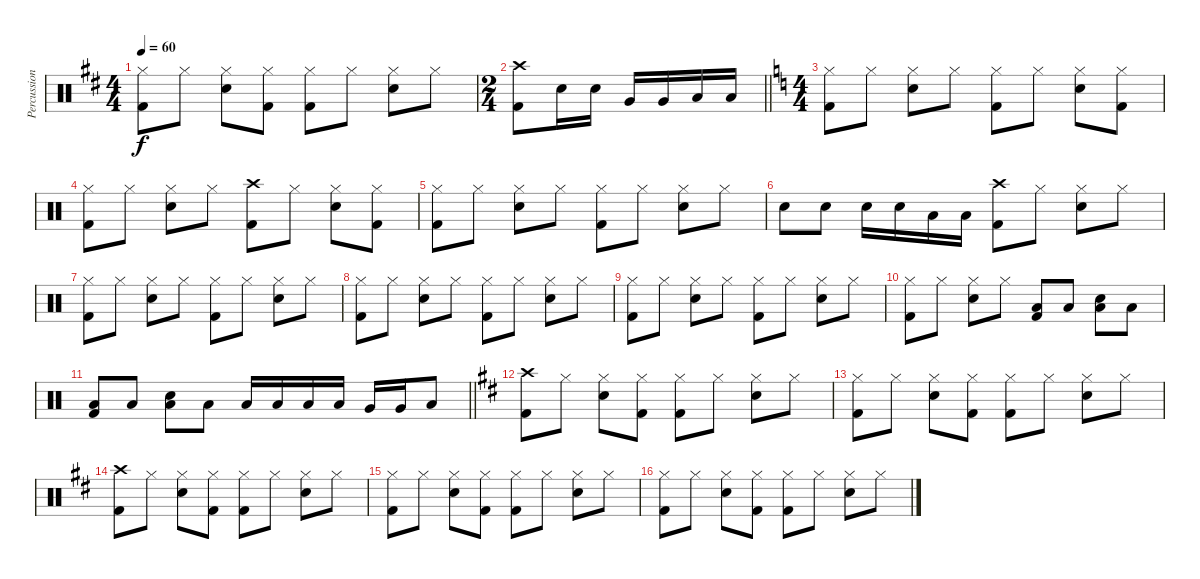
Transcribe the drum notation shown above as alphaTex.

\track ("Percussioni" "Percussion") {instrument percussion}
\staff {score}
\articulation defaults
\ts (4 4)
\tempo 60
\clef neutral
\ks d
("Hi-Hat (closed)" "Kick (hit) 2").8{dy f} "Hi-Hat (closed)".8 ("Hi-Hat (closed)" "Electric Snare (hit)").8 ("Hi-Hat (closed)" "Kick (hit) 2").8 ("Hi-Hat (closed)" "Kick (hit) 2").8 "Hi-Hat (closed)".8 ("Hi-Hat (closed)" "Electric Snare (hit)").8 "Hi-Hat (closed)".8 |
\ts (2 4)
\barLineRight lightlight
("Crash high (hit)" "Kick (hit) 2").8 "Electric Snare (hit)".16 "Electric Snare (hit)".16 "Very Low Tom (hit)".16 "Very Low Tom (hit)".16 "Low Floor Tom (hit)".16 "Low Floor Tom (hit)".16 |
\ts (4 4)
\ks c
("Hi-Hat (closed)" "Kick (hit) 2").8 "Hi-Hat (closed)".8 ("Hi-Hat (closed)" "Electric Snare (hit)").8 "Hi-Hat (closed)".8 ("Hi-Hat (closed)" "Kick (hit) 2").8 "Hi-Hat (closed)".8 ("Hi-Hat (closed)" "Electric Snare (hit)").8 ("Hi-Hat (closed)" "Kick (hit) 2").8 |
("Hi-Hat (closed)" "Kick (hit) 2").8 "Hi-Hat (closed)".8 ("Hi-Hat (closed)" "Electric Snare (hit)").8 "Hi-Hat (closed)".8 ("Crash high (hit)" "Kick (hit) 2").8 "Hi-Hat (closed)".8 ("Hi-Hat (closed)" "Electric Snare (hit)").8 ("Hi-Hat (closed)" "Kick (hit) 2").8 |
("Hi-Hat (closed)" "Kick (hit) 2").8 "Hi-Hat (closed)".8 ("Hi-Hat (closed)" "Electric Snare (hit)").8 "Hi-Hat (closed)".8 ("Hi-Hat (closed)" "Kick (hit) 2").8 "Hi-Hat (closed)".8 ("Hi-Hat (closed)" "Electric Snare (hit)").8 "Hi-Hat (closed)".8 |
"Electric Snare (hit)".8 "Electric Snare (hit)".8 "Electric Snare (hit)".16 "Electric Snare (hit)".16 "Low Floor Tom (hit)".16 "Low Floor Tom (hit)".16 ("Crash high (hit)" "Kick (hit) 2").8 "Hi-Hat (closed)".8 ("Hi-Hat (closed)" "Electric Snare (hit)").8 "Hi-Hat (closed)".8 |
("Hi-Hat (closed)" "Kick (hit) 2").8 "Hi-Hat (closed)".8 ("Hi-Hat (closed)" "Electric Snare (hit)").8 "Hi-Hat (closed)".8 ("Hi-Hat (closed)" "Kick (hit) 2").8 "Hi-Hat (closed)".8 ("Hi-Hat (closed)" "Electric Snare (hit)").8 "Hi-Hat (closed)".8 |
("Hi-Hat (closed)" "Kick (hit) 2").8 "Hi-Hat (closed)".8 ("Hi-Hat (closed)" "Electric Snare (hit)").8 "Hi-Hat (closed)".8 ("Hi-Hat (closed)" "Kick (hit) 2").8 "Hi-Hat (closed)".8 ("Hi-Hat (closed)" "Electric Snare (hit)").8 "Hi-Hat (closed)".8 |
("Hi-Hat (closed)" "Kick (hit) 2").8 "Hi-Hat (closed)".8 ("Hi-Hat (closed)" "Electric Snare (hit)").8 "Hi-Hat (closed)".8 ("Hi-Hat (closed)" "Kick (hit) 2").8 "Hi-Hat (closed)".8 ("Hi-Hat (closed)" "Electric Snare (hit)").8 "Hi-Hat (closed)".8 |
("Hi-Hat (closed)" "Kick (hit) 2").8 "Hi-Hat (closed)".8 ("Hi-Hat (closed)" "Electric Snare (hit)").8 "Hi-Hat (closed)".8 ("Low Floor Tom (hit)" "Kick (hit) 2").8 "Low Floor Tom (hit)".8 ("Electric Snare (hit)" "Low Floor Tom (hit)").8 "Low Floor Tom (hit)".8 |
\barLineRight lightlight
("Low Floor Tom (hit)" "Kick (hit) 2").8 "Low Floor Tom (hit)".8 ("Electric Snare (hit)" "Low Floor Tom (hit)").8 "Low Floor Tom (hit)".8 "Low Floor Tom (hit)".16 "Low Floor Tom (hit)".16 "Low Floor Tom (hit)".16 "Low Floor Tom (hit)".16 "Very Low Tom (hit)".16 "Very Low Tom (hit)".16 "Low Floor Tom (hit)".8 |
\ks d
("Crash high (hit)" "Kick (hit) 2").8 "Hi-Hat (closed)".8 ("Hi-Hat (closed)" "Electric Snare (hit)").8 ("Hi-Hat (closed)" "Kick (hit) 2").8 ("Hi-Hat (closed)" "Kick (hit) 2").8 "Hi-Hat (closed)".8 ("Hi-Hat (closed)" "Electric Snare (hit)").8 "Hi-Hat (closed)".8 |
("Hi-Hat (closed)" "Kick (hit) 2").8 "Hi-Hat (closed)".8 ("Hi-Hat (closed)" "Electric Snare (hit)").8 ("Hi-Hat (closed)" "Kick (hit) 2").8 ("Hi-Hat (closed)" "Kick (hit) 2").8 "Hi-Hat (closed)".8 ("Hi-Hat (closed)" "Electric Snare (hit)").8 "Hi-Hat (closed)".8 |
("Crash high (hit)" "Kick (hit) 2").8 "Hi-Hat (closed)".8 ("Hi-Hat (closed)" "Electric Snare (hit)").8 ("Hi-Hat (closed)" "Kick (hit) 2").8 ("Hi-Hat (closed)" "Kick (hit) 2").8 "Hi-Hat (closed)".8 ("Hi-Hat (closed)" "Electric Snare (hit)").8 "Hi-Hat (closed)".8 |
("Hi-Hat (closed)" "Kick (hit) 2").8 "Hi-Hat (closed)".8 ("Hi-Hat (closed)" "Electric Snare (hit)").8 ("Hi-Hat (closed)" "Kick (hit) 2").8 ("Hi-Hat (closed)" "Kick (hit) 2").8 "Hi-Hat (closed)".8 ("Hi-Hat (closed)" "Electric Snare (hit)").8 "Hi-Hat (closed)".8 |
("Hi-Hat (closed)" "Kick (hit) 2").8 "Hi-Hat (closed)".8 ("Hi-Hat (closed)" "Electric Snare (hit)").8 ("Hi-Hat (closed)" "Kick (hit) 2").8 ("Hi-Hat (closed)" "Kick (hit) 2").8 "Hi-Hat (closed)".8 ("Hi-Hat (closed)" "Electric Snare (hit)").8 "Hi-Hat (closed)".8
